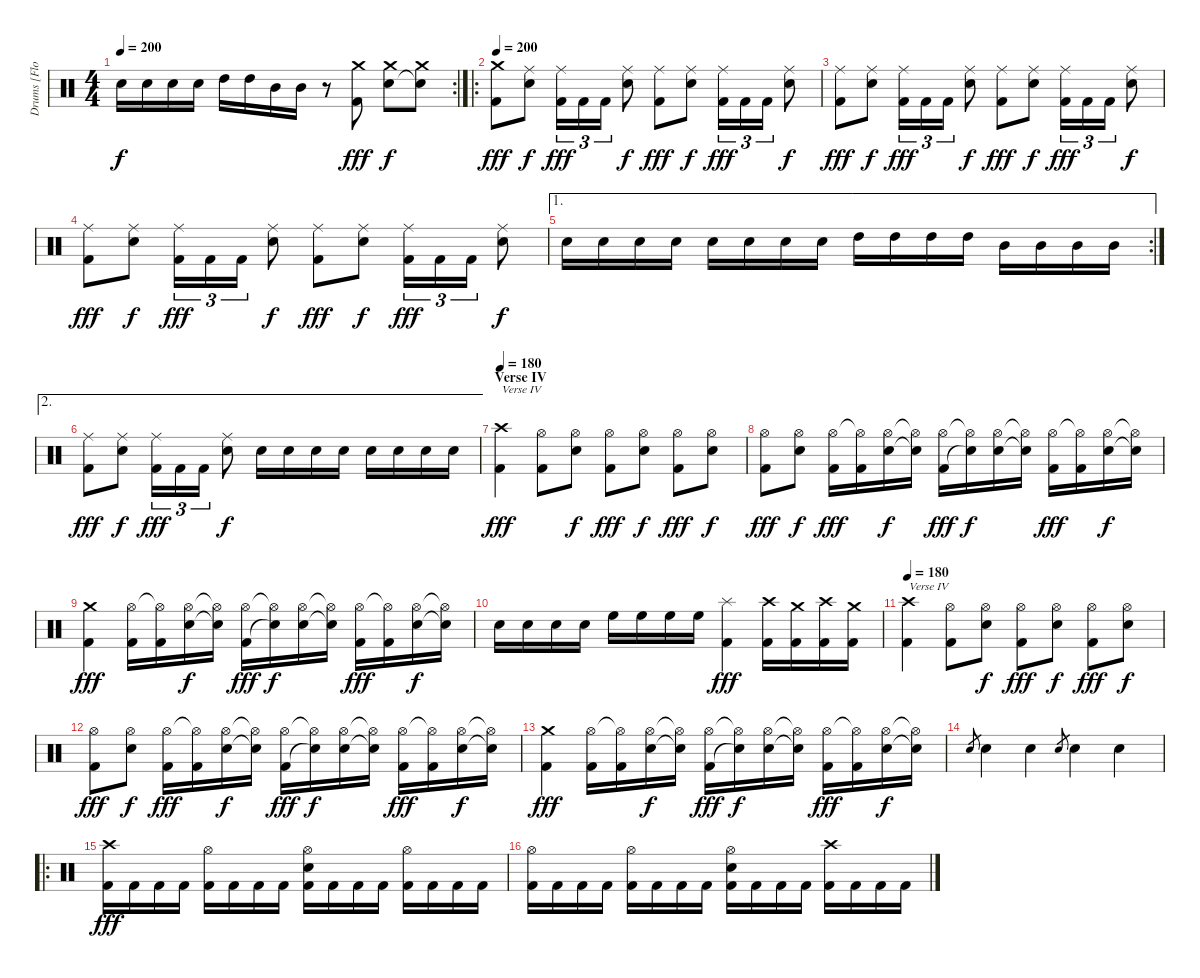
\track ("Drums [Flo Mounier]" "Drums [Flo") {instrument percussion}
\staff {score}
\articulation defaults
\rc 2
\ts (4 4)
\tempo 200
\clef neutral
\ks c "Electric Snare (hit)".16{dy f} "Electric Snare (hit)".16 "Electric Snare (hit)".16 "Electric Snare (hit)".16 "High Tom (hit)".16 "High Tom (hit)".16 "Mid Tom (hit)".16 "Mid Tom (hit)".16
r.8 ("Crash medium (hit)" "Kick (hit) 2").8{dy fff} ("Crash medium (hit)" "Electric Snare (hit)").8{dy f} ("Crash medium (hit)" "Snare (hit)"{t}).8 |
\ro
\tempo 200
("Crash medium (hit)" "Kick (hit) 2").8{dy fff} ("Ride (middle)" "Electric Snare (hit)").8{dy f} ("Ride (middle)" "Kick (hit) 2").16{tu (3 2) dy fff} "Kick (hit) 2".16{tu (3 2)} "Kick (hit) 2".16{tu (3 2)} ("Ride (middle)" "Electric Snare (hit)").8{dy f} ("Ride (middle)" "Kick (hit) 2").8{dy fff} ("Ride (middle)" "Electric Snare (hit)").8{dy f} ("Ride (middle)" "Kick (hit) 2").16{tu (3 2) dy fff} "Kick (hit) 2".16{tu (3 2)} "Kick (hit) 2".16{tu (3 2)} ("Ride (middle)" "Electric Snare (hit)").8{dy f} |
("Ride (middle)" "Kick (hit) 2").8{dy fff} ("Ride (middle)" "Electric Snare (hit)").8{dy f} ("Ride (middle)" "Kick (hit) 2").16{tu (3 2) dy fff} "Kick (hit) 2".16{tu (3 2)} "Kick (hit) 2".16{tu (3 2)} ("Ride (middle)" "Electric Snare (hit)").8{dy f} ("Ride (middle)" "Kick (hit) 2").8{dy fff} ("Ride (middle)" "Electric Snare (hit)").8{dy f} ("Ride (middle)" "Kick (hit) 2").16{tu (3 2) dy fff} "Kick (hit) 2".16{tu (3 2)} "Kick (hit) 2".16{tu (3 2)} ("Ride (middle)" "Electric Snare (hit)").8{dy f} |
("Ride (middle)" "Kick (hit) 2").8{dy fff} ("Ride (middle)" "Electric Snare (hit)").8{dy f} ("Ride (middle)" "Kick (hit) 2").16{tu (3 2) dy fff} "Kick (hit) 2".16{tu (3 2)} "Kick (hit) 2".16{tu (3 2)} ("Ride (middle)" "Electric Snare (hit)").8{dy f} ("Ride (middle)" "Kick (hit) 2").8{dy fff} ("Ride (middle)" "Electric Snare (hit)").8{dy f} ("Ride (middle)" "Kick (hit) 2").16{tu (3 2) dy fff} "Kick (hit) 2".16{tu (3 2)} "Kick (hit) 2".16{tu (3 2)} ("Ride (middle)" "Electric Snare (hit)").8{dy f} |
\ae 1
\rc 2 "Electric Snare (hit)".16 "Electric Snare (hit)".16 "Electric Snare (hit)".16 "Electric Snare (hit)".16 "Electric Snare (hit)".16 "Electric Snare (hit)".16 "Electric Snare (hit)".16 "Electric Snare (hit)".16 "High Tom (hit)".16 "High Tom (hit)".16 "High Tom (hit)".16 "High Tom (hit)".16 "Mid Tom (hit)".16 "Mid Tom (hit)".16 "Mid Tom (hit)".16 "Mid Tom (hit)".16
|
\ae 2
("Ride (middle)" "Kick (hit) 2").8{dy fff} ("Ride (middle)" "Electric Snare (hit)").8{dy f} ("Ride (middle)" "Kick (hit) 2").16{tu (3 2) dy fff} "Kick (hit) 2".16{tu (3 2)} "Kick (hit) 2".16{tu (3 2)} ("Ride (middle)" "Electric Snare (hit)").8{dy f} "Electric Snare (hit)".16 "Electric Snare (hit)".16 "Electric Snare (hit)".16 "Electric Snare (hit)".16 "Electric Snare (hit)".16 "Electric Snare (hit)".16 "Electric Snare (hit)".16 "Electric Snare (hit)".16 |
\section ("" "Verse IV")
\tempo 180
("Crash high (hit)" "Kick (hit) 2").4{txt "Verse IV" dy fff} ("Hi-Hat (open)" "Kick (hit) 2").8 ("Hi-Hat (open)" "Electric Snare (hit)").8{dy f} ("Hi-Hat (open)" "Kick (hit) 2").8{dy fff} ("Hi-Hat (open)" "Electric Snare (hit)").8{dy f} ("Hi-Hat (open)" "Kick (hit) 2").8{dy fff} ("Hi-Hat (open)" "Electric Snare (hit)").8{dy f} |
("Hi-Hat (open)" "Kick (hit) 2").8{dy fff} ("Hi-Hat (open)" "Electric Snare (hit)").8{dy f} ("Hi-Hat (open)" "Kick (hit) 2").16{dy fff} ("Hi-Hat (open)"{t} "Kick (hit) 2").16 ("Hi-Hat (open)" "Electric Snare (hit)").16{dy f} ("Hi-Hat (open)"{t} "Snare (hit)"{t}).16 ("Hi-Hat (open)" "Kick (hit) 2").16{dy fff} ("Hi-Hat (open)"{t} "Snare (hit)"{t}).16{dy f} ("Hi-Hat (open)" "Electric Snare (hit)").16 ("Hi-Hat (open)"{t} "Snare (hit)"{t}).16 ("Hi-Hat (open)" "Kick (hit) 2").16{dy fff} ("Hi-Hat (open)"{t} "Kick (hit) 2").16 ("Hi-Hat (open)" "Electric Snare (hit)").16{dy f} ("Hi-Hat (open)"{t} "Snare (hit)"{t}).16 |
("Crash medium (hit)" "Kick (hit) 2").4{dy fff} ("Hi-Hat (open)" "Kick (hit) 2").16 ("Hi-Hat (open)"{t} "Kick (hit) 2").16 ("Hi-Hat (open)" "Electric Snare (hit)").16{dy f} ("Hi-Hat (open)"{t} "Snare (hit)"{t}).16 ("Hi-Hat (open)" "Kick (hit) 2").16{dy fff} ("Hi-Hat (open)"{t} "Snare (hit)"{t}).16{dy f} ("Hi-Hat (open)" "Electric Snare (hit)").16 ("Hi-Hat (open)"{t} "Snare (hit)"{t}).16 ("Hi-Hat (open)" "Kick (hit) 2").16{dy fff} ("Hi-Hat (open)"{t} "Kick (hit) 2").16 ("Hi-Hat (open)" "Electric Snare (hit)").16{dy f} ("Hi-Hat (open)"{t} "Snare (hit)"{t}).16 |
"Electric Snare (hit)".16 "Electric Snare (hit)".16 "Electric Snare (hit)".16 "Electric Snare (hit)".16 "High Floor Tom (hit)".16 "High Floor Tom (hit)".16 "High Floor Tom (hit)".16 "High Floor Tom (hit)".16 ("Splash (hit)" "Kick (hit) 2").4{dy fff} ("Crash high (hit)" "Kick (hit) 2").16 ("Crash medium (hit)" "Kick (hit) 2").16 ("Crash high (hit)" "Kick (hit) 2").16 ("Crash medium (hit)" "Kick (hit) 2").16 |
\tempo 180
("Crash high (hit)" "Kick (hit) 2").4{txt "Verse IV"} ("Hi-Hat (open)" "Kick (hit) 2").8 ("Hi-Hat (open)" "Electric Snare (hit)").8{dy f} ("Hi-Hat (open)" "Kick (hit) 2").8{dy fff} ("Hi-Hat (open)" "Electric Snare (hit)").8{dy f} ("Hi-Hat (open)" "Kick (hit) 2").8{dy fff} ("Hi-Hat (open)" "Electric Snare (hit)").8{dy f} |
("Hi-Hat (open)" "Kick (hit) 2").8{dy fff} ("Hi-Hat (open)" "Electric Snare (hit)").8{dy f} ("Hi-Hat (open)" "Kick (hit) 2").16{dy fff} ("Hi-Hat (open)"{t} "Kick (hit) 2").16 ("Hi-Hat (open)" "Electric Snare (hit)").16{dy f} ("Hi-Hat (open)"{t} "Snare (hit)"{t}).16 ("Hi-Hat (open)" "Kick (hit) 2").16{dy fff} ("Hi-Hat (open)"{t} "Snare (hit)"{t}).16{dy f} ("Hi-Hat (open)" "Electric Snare (hit)").16 ("Hi-Hat (open)"{t} "Snare (hit)"{t}).16 ("Hi-Hat (open)" "Kick (hit) 2").16{dy fff} ("Hi-Hat (open)"{t} "Kick (hit) 2").16 ("Hi-Hat (open)" "Electric Snare (hit)").16{dy f} ("Hi-Hat (open)"{t} "Snare (hit)"{t}).16 |
("Crash medium (hit)" "Kick (hit) 2").4{dy fff} ("Hi-Hat (open)" "Kick (hit) 2").16 ("Hi-Hat (open)"{t} "Kick (hit) 2").16 ("Hi-Hat (open)" "Electric Snare (hit)").16{dy f} ("Hi-Hat (open)"{t} "Snare (hit)"{t}).16 ("Hi-Hat (open)" "Kick (hit) 2").16{dy fff} ("Hi-Hat (open)"{t} "Snare (hit)"{t}).16{dy f} ("Hi-Hat (open)" "Electric Snare (hit)").16 ("Hi-Hat (open)"{t} "Snare (hit)"{t}).16 ("Hi-Hat (open)" "Kick (hit) 2").16{dy fff} ("Hi-Hat (open)"{t} "Kick (hit) 2").16 ("Hi-Hat (open)" "Electric Snare (hit)").16{dy f} ("Hi-Hat (open)"{t} "Snare (hit)"{t}).16 |
"Electric Snare (hit)".8{gr} "Electric Snare (hit)".4 "Electric Snare (hit)".4 "Electric Snare (hit)".8{gr} "Electric Snare (hit)".4 "Electric Snare (hit)".4 |
\ro
("Crash high (hit)" "Kick (hit) 2").16{dy fff} "Kick (hit) 2".16 "Kick (hit) 2".16 "Kick (hit) 2".16 ("Hi-Hat (open)" "Kick (hit) 2").16 "Kick (hit) 2".16 "Kick (hit) 2".16 "Kick (hit) 2".16 ("Hi-Hat (open)" "Electric Snare (hit)" "Kick (hit) 2").16 "Kick (hit) 2".16 "Kick (hit) 2".16 "Kick (hit) 2".16 ("Hi-Hat (open)" "Kick (hit) 2").16 "Kick (hit) 2".16 "Kick (hit) 2".16 "Kick (hit) 2".16 |
("Hi-Hat (open)" "Kick (hit) 2").16 "Kick (hit) 2".16 "Kick (hit) 2".16 "Kick (hit) 2".16 ("Hi-Hat (open)" "Kick (hit) 2").16 "Kick (hit) 2".16 "Kick (hit) 2".16 "Kick (hit) 2".16 ("Hi-Hat (open)" "Electric Snare (hit)" "Kick (hit) 2").16 "Kick (hit) 2".16 "Kick (hit) 2".16 "Kick (hit) 2".16 ("Crash high (hit)" "Kick (hit) 2").16 "Kick (hit) 2".16 "Kick (hit) 2".16 "Kick (hit) 2".16
